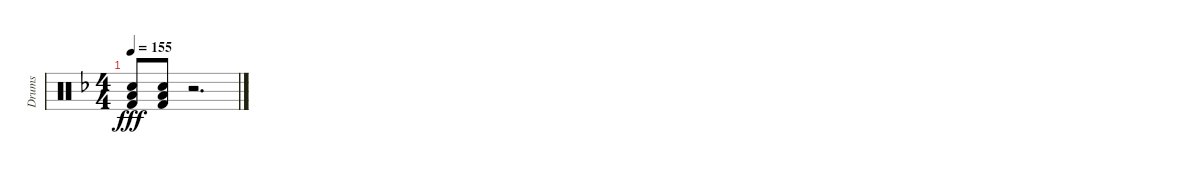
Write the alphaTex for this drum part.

\track ("Drums" "Drums") {instrument percussion}
\staff {score}
\articulation defaults
\ts (4 4)
\tempo 155
\clef neutral
\ks dminor
("Snare (hit) 2" "Low Floor Tom (hit)" "Kick (hit) 2").8{dy fff} ("Snare (hit) 2" "Low Floor Tom (hit)" "Kick (hit) 2").8 r.2{d}
